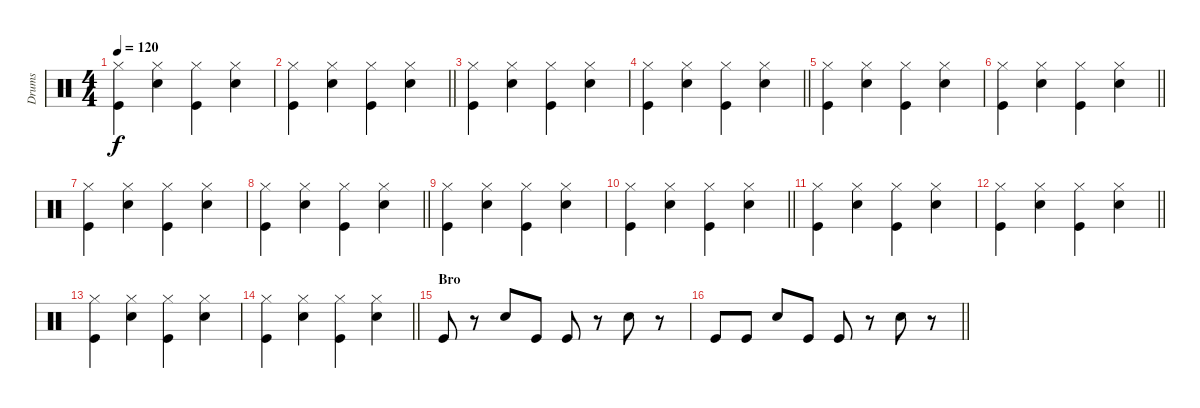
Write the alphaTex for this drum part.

\track ("Drums" "Drums") {instrument percussion}
\staff {score}
\articulation defaults
\ts (4 4)
\tempo 120
\clef neutral
\ks c
("Hi-Hat (closed)" "Kick (hit)").4{dy f} ("Hi-Hat (closed)" "Snare (hit) 2").4 ("Hi-Hat (closed)" "Kick (hit)").4 ("Hi-Hat (closed)" "Snare (hit) 2").4 |
\barLineRight lightlight
("Hi-Hat (closed)" "Kick (hit)").4 ("Hi-Hat (closed)" "Snare (hit) 2").4 ("Hi-Hat (closed)" "Kick (hit)").4 ("Hi-Hat (closed)" "Snare (hit) 2").4 |
("Hi-Hat (closed)" "Kick (hit)").4 ("Hi-Hat (closed)" "Snare (hit) 2").4 ("Hi-Hat (closed)" "Kick (hit)").4 ("Hi-Hat (closed)" "Snare (hit) 2").4 |
\barLineRight lightlight
("Hi-Hat (closed)" "Kick (hit)").4 ("Hi-Hat (closed)" "Snare (hit) 2").4 ("Hi-Hat (closed)" "Kick (hit)").4 ("Hi-Hat (closed)" "Snare (hit) 2").4 |
("Hi-Hat (closed)" "Kick (hit)").4 ("Hi-Hat (closed)" "Snare (hit) 2").4 ("Hi-Hat (closed)" "Kick (hit)").4 ("Hi-Hat (closed)" "Snare (hit) 2").4 |
\barLineRight lightlight
("Hi-Hat (closed)" "Kick (hit)").4 ("Hi-Hat (closed)" "Snare (hit) 2").4 ("Hi-Hat (closed)" "Kick (hit)").4 ("Hi-Hat (closed)" "Snare (hit) 2").4 |
("Hi-Hat (closed)" "Kick (hit)").4 ("Hi-Hat (closed)" "Snare (hit) 2").4 ("Hi-Hat (closed)" "Kick (hit)").4 ("Hi-Hat (closed)" "Snare (hit) 2").4 |
\barLineRight lightlight
("Hi-Hat (closed)" "Kick (hit)").4 ("Hi-Hat (closed)" "Snare (hit) 2").4 ("Hi-Hat (closed)" "Kick (hit)").4 ("Hi-Hat (closed)" "Snare (hit) 2").4 |
("Hi-Hat (closed)" "Kick (hit)").4 ("Hi-Hat (closed)" "Snare (hit) 2").4 ("Hi-Hat (closed)" "Kick (hit)").4 ("Hi-Hat (closed)" "Snare (hit) 2").4 |
\barLineRight lightlight
("Hi-Hat (closed)" "Kick (hit)").4 ("Hi-Hat (closed)" "Snare (hit) 2").4 ("Hi-Hat (closed)" "Kick (hit)").4 ("Hi-Hat (closed)" "Snare (hit) 2").4 |
("Hi-Hat (closed)" "Kick (hit)").4 ("Hi-Hat (closed)" "Snare (hit) 2").4 ("Hi-Hat (closed)" "Kick (hit)").4 ("Hi-Hat (closed)" "Snare (hit) 2").4 |
\barLineRight lightlight
("Hi-Hat (closed)" "Kick (hit)").4 ("Hi-Hat (closed)" "Snare (hit) 2").4 ("Hi-Hat (closed)" "Kick (hit)").4 ("Hi-Hat (closed)" "Snare (hit) 2").4 |
("Hi-Hat (closed)" "Kick (hit)").4 ("Hi-Hat (closed)" "Snare (hit) 2").4 ("Hi-Hat (closed)" "Kick (hit)").4 ("Hi-Hat (closed)" "Snare (hit) 2").4 |
\barLineRight lightlight
("Hi-Hat (closed)" "Kick (hit)").4 ("Hi-Hat (closed)" "Snare (hit) 2").4 ("Hi-Hat (closed)" "Kick (hit)").4 ("Hi-Hat (closed)" "Snare (hit) 2").4 |
\section ("" "Bro")
"Kick (hit)".8 r.8 "Snare (hit) 2".8 "Kick (hit)".8 "Kick (hit)".8 r.8 "Snare (hit) 2".8 r.8 |
\barLineRight lightlight "Kick (hit)".8 "Kick (hit)".8 "Snare (hit) 2".8 "Kick (hit)".8 "Kick (hit)".8
r.8 "Snare (hit) 2".8 r.8
